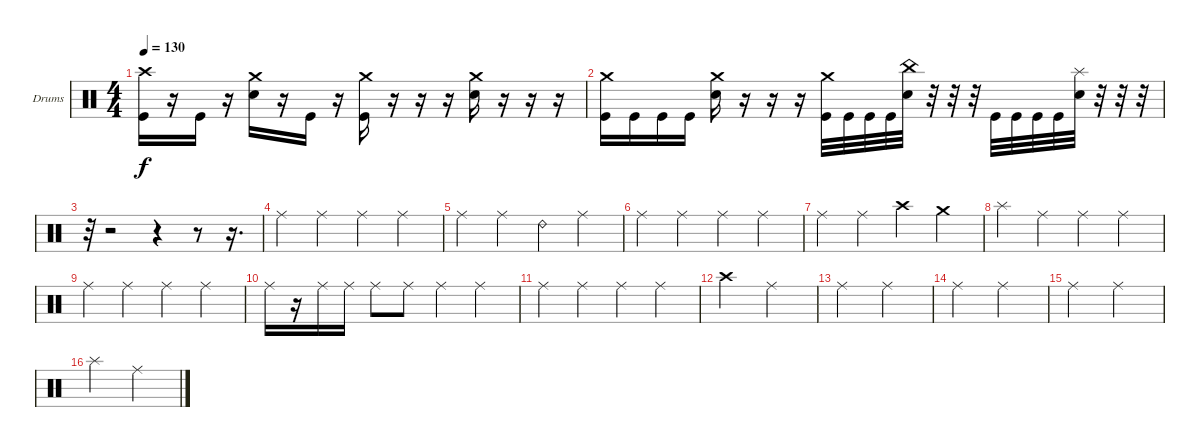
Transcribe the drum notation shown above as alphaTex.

\defaultSystemsLayout 4
\bracketExtendMode groupsimilarinstruments
\firstSystemTrackNameOrientation horizontal
\otherSystemsTrackNameOrientation horizontal
\track ("Drumkit" "Drums") {instrument percussion}
\staff {score}
\articulation defaults
\ts (4 4)
\tempo 130
\clef neutral
\scale
0.333333
\ks c
("Kick (hit)" "Crash high (hit)").16{dy f} r.16 "Kick (hit)".16 r.16 ("Snare (hit) 2" "Crash medium (hit)").16 r.16 "Kick (hit)".16 r.16 ("Kick (hit)" "Crash medium (hit)").16 r.16 r.16 r.16 ("Snare (hit) 2" "Crash medium (hit)").16 r.16 r.16 r.16 |
\scale
0.333333 ("Kick (hit)" "Crash medium (hit)").16 "Kick (hit)".16 "Kick (hit)".16 "Kick (hit)".16 ("Snare (hit) 2" "Crash medium (hit)").16 r.16 r.16 r.16 ("Kick (hit)" "Crash medium (hit)").32 "Kick (hit)".32 "Kick (hit)".32 "Kick (hit)".32 ("Snare (hit) 2" "China (hit)").32 r.32 r.32 r.32 "Kick (hit)".32 "Kick (hit)".32 "Kick (hit)".32 "Kick (hit)".32 ("Snare (hit) 2" "Splash (hit)").32 r.32 r.32 r.32 |
\scale
0.333333 r.32 r.2 r.4 r.8 r.16{d} |
\scale
0.333333 "Ride (middle)".4 "Ride (middle)".4 "Ride (middle)".4 "Ride (middle)".4 |
\scale
0.333333 "Ride (middle)".4 "Ride (middle)".4 "Ride (bell) 2".4 "Ride (middle)".4 |
\scale
0.333333 "Ride (middle)".4 "Ride (middle)".4 "Ride (middle)".4 "Ride (middle)".4 |
\scale
0.333333 "Ride (middle)".4 "Ride (middle)".4 "Crash high (hit)".4 "Crash medium (hit)".4 |
\scale
0.333333 "Splash (hit)".4 "Ride (middle)".4 "Ride (middle)".4 "Ride (middle)".4 |
\scale
0.333333 "Ride (middle)".4 "Ride (middle)".4 "Ride (middle)".4 "Ride (middle)".4 |
\scale
0.333333 "Ride (middle)".16 r.16 "Ride (middle)".16 "Ride (middle)".16 "Ride (middle)".8 "Ride (middle)".8 "Ride (middle)".4 "Ride (middle)".4 |
\scale
0.333333 "Ride (middle)".4 "Ride (middle)".4 "Ride (middle)".4 "Ride (middle)".4 |
\scale
0.333333 "Crash high (hit)".2 "Ride (middle)".2 |
\scale
0.333333 "Ride (middle)".2 "Ride (middle)".2 |
\scale
0.333333 "Ride (middle)".2 "Ride (middle)".2 |
\scale
0.333333 "Ride (middle)".2 "Ride (middle)".2 |
\scale
0.333333 "Splash (hit)".2 "Ride (middle)".2
